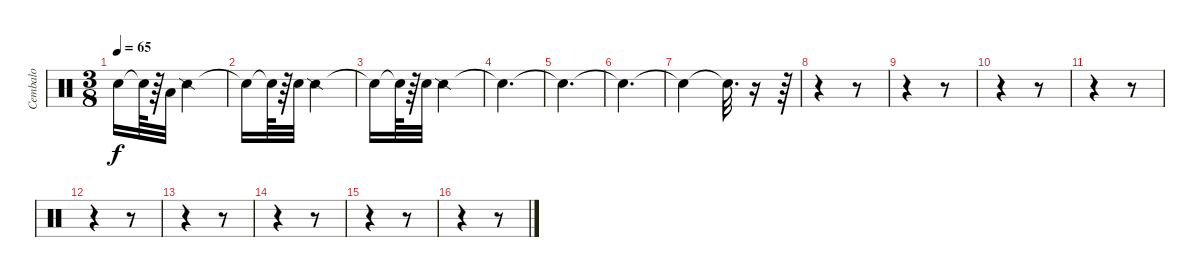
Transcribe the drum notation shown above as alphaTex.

\track ("Cembalo" "Cembalo") {instrument percussion}
\staff {score}
\articulation defaults
\ts (3 8)
\tempo 65
\clef neutral
\ks c "Snare (hit)"{t}.16{dy f} "Snare (hit)"{t}.64
r.64 "Low Floor Tom (hit)".32 "Snare (side stick) 2".4 |
"Snare (hit)"{t}.16 "Snare (hit)"{t}.64 r.64 "Hand Clap (hit)".32 "Snare (side stick) 2".4 |
"Snare (hit)"{t}.16 "Snare (hit)"{t}.64 r.64 "Snare (hit) 2".32 "Snare (side stick) 2".4 |
"Snare (hit)"{t}.4{d} |
"Snare (hit)"{t}.4{d} |
"Snare (hit)"{t}.4{d} |
"Snare (hit)"{t}.4 "Snare (hit)"{t}.32{d} r.16 r.64 |
r.4 r.8 |
r.4 r.8 |
r.4 r.8 |
r.4 r.8 |
r.4 r.8 |
r.4 r.8 |
r.4 r.8 |
r.4 r.8 |
r.4 r.8
